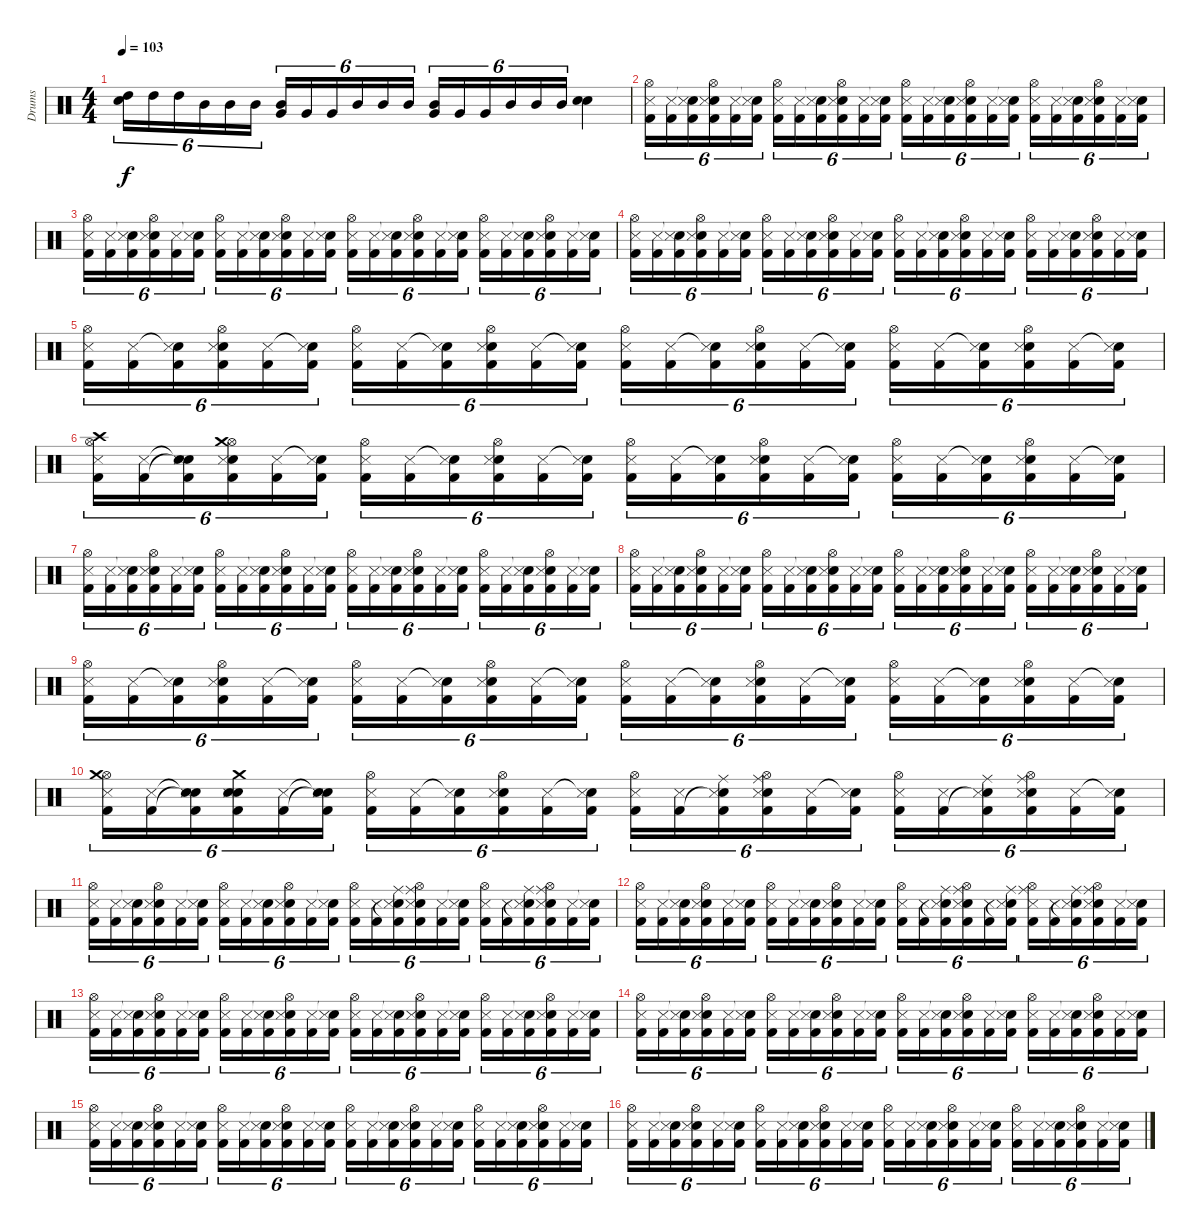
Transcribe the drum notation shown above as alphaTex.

\track ("Drums" "Drums") {instrument percussion}
\staff {score}
\articulation defaults
\ts (4 4)
\tempo 103
\clef neutral
\ks c
("Electric Snare (hit)" "High Tom (hit)").16{tu (6 4) dy f} "High Tom (hit)".16{tu (6 4)} "High Tom (hit)".16{tu (6 4)} "Mid Tom (hit)".16{tu (6 4)} "Mid Tom (hit)".16{tu (6 4)} "Mid Tom (hit)".16{tu (6 4)} ("Very Low Tom (hit)" "Mid Tom (hit)").16{tu (6 4)} "Very Low Tom (hit)".16{tu (6 4)} "Very Low Tom (hit)".16{tu (6 4)} "Mid Tom (hit)".16{tu (6 4)} "Mid Tom (hit)".16{tu (6 4)} "Mid Tom (hit)".16{tu (6 4)} ("Very Low Tom (hit)" "Mid Tom (hit)").16{tu (6 4)} "Very Low Tom (hit)".16{tu (6 4)} "Very Low Tom (hit)".16{tu (6 4)} "Mid Tom (hit)".16{tu (6 4)} "Mid Tom (hit)".16{tu (6 4)} "Mid Tom (hit)".16{tu (6 4)} ("Snare (hit) 2" "Electric Snare (hit)").4 |
("Hi-Hat (open)" "Snare (side stick) 3" "Kick (hit) 2").16{tu (6 4)} ("Snare (side stick) 3" "Kick (hit) 2").16{tu (6 4)} ("Snare (hit)"{t} "Snare (side stick) 3" "Kick (hit) 2").16{tu (6 4)} ("Hi-Hat (open)" "Electric Snare (hit)" "Snare (side stick) 3" "Kick (hit) 2").16{tu (6 4)} ("Snare (side stick) 3" "Kick (hit) 2").16{tu (6 4)} ("Snare (hit)"{t} "Snare (side stick) 3" "Kick (hit) 2").16{tu (6 4)} ("Hi-Hat (open)" "Snare (side stick) 3" "Kick (hit) 2").16{tu (6 4)} ("Snare (side stick) 3" "Kick (hit) 2").16{tu (6 4)} ("Snare (hit)"{t} "Snare (side stick) 3" "Kick (hit) 2").16{tu (6 4)} ("Hi-Hat (open)" "Electric Snare (hit)" "Snare (side stick) 3" "Kick (hit) 2").16{tu (6 4)} ("Snare (side stick) 3" "Kick (hit) 2").16{tu (6 4)} ("Snare (hit)"{t} "Snare (side stick) 3" "Kick (hit) 2").16{tu (6 4)} ("Hi-Hat (open)" "Snare (side stick) 3" "Kick (hit) 2").16{tu (6 4)} ("Snare (side stick) 3" "Kick (hit) 2").16{tu (6 4)} ("Snare (hit)"{t} "Snare (side stick) 3" "Kick (hit) 2").16{tu (6 4)} ("Hi-Hat (open)" "Electric Snare (hit)" "Snare (side stick) 3" "Kick (hit) 2").16{tu (6 4)} ("Snare (side stick) 3" "Kick (hit) 2").16{tu (6 4)} ("Snare (hit)"{t} "Snare (side stick) 3" "Kick (hit) 2").16{tu (6 4)} ("Hi-Hat (open)" "Snare (side stick) 3" "Kick (hit) 2").16{tu (6 4)} ("Snare (side stick) 3" "Kick (hit) 2").16{tu (6 4)} ("Snare (hit)"{t} "Snare (side stick) 3" "Kick (hit) 2").16{tu (6 4)} ("Hi-Hat (open)" "Electric Snare (hit)" "Snare (side stick) 3" "Kick (hit) 2").16{tu (6 4)} ("Snare (side stick) 3" "Kick (hit) 2").16{tu (6 4)} ("Snare (hit)"{t} "Snare (side stick) 3" "Kick (hit) 2").16{tu (6 4)} |
("Hi-Hat (open)" "Snare (side stick) 3" "Kick (hit) 2").16{tu (6 4)} ("Snare (side stick) 3" "Kick (hit) 2").16{tu (6 4)} ("Snare (hit)"{t} "Snare (side stick) 3" "Kick (hit) 2").16{tu (6 4)} ("Hi-Hat (open)" "Electric Snare (hit)" "Snare (side stick) 3" "Kick (hit) 2").16{tu (6 4)} ("Snare (side stick) 3" "Kick (hit) 2").16{tu (6 4)} ("Snare (hit)"{t} "Snare (side stick) 3" "Kick (hit) 2").16{tu (6 4)} ("Hi-Hat (open)" "Snare (side stick) 3" "Kick (hit) 2").16{tu (6 4)} ("Snare (side stick) 3" "Kick (hit) 2").16{tu (6 4)} ("Snare (hit)"{t} "Snare (side stick) 3" "Kick (hit) 2").16{tu (6 4)} ("Hi-Hat (open)" "Electric Snare (hit)" "Snare (side stick) 3" "Kick (hit) 2").16{tu (6 4)} ("Snare (side stick) 3" "Kick (hit) 2").16{tu (6 4)} ("Snare (hit)"{t} "Snare (side stick) 3" "Kick (hit) 2").16{tu (6 4)} ("Hi-Hat (open)" "Snare (side stick) 3" "Kick (hit) 2").16{tu (6 4)} ("Snare (side stick) 3" "Kick (hit) 2").16{tu (6 4)} ("Snare (hit)"{t} "Snare (side stick) 3" "Kick (hit) 2").16{tu (6 4)} ("Hi-Hat (open)" "Electric Snare (hit)" "Snare (side stick) 3" "Kick (hit) 2").16{tu (6 4)} ("Snare (side stick) 3" "Kick (hit) 2").16{tu (6 4)} ("Snare (hit)"{t} "Snare (side stick) 3" "Kick (hit) 2").16{tu (6 4)} ("Hi-Hat (open)" "Snare (side stick) 3" "Kick (hit) 2").16{tu (6 4)} ("Snare (side stick) 3" "Kick (hit) 2").16{tu (6 4)} ("Snare (hit)"{t} "Snare (side stick) 3" "Kick (hit) 2").16{tu (6 4)} ("Hi-Hat (open)" "Electric Snare (hit)" "Snare (side stick) 3" "Kick (hit) 2").16{tu (6 4)} ("Snare (side stick) 3" "Kick (hit) 2").16{tu (6 4)} ("Snare (hit)"{t} "Snare (side stick) 3" "Kick (hit) 2").16{tu (6 4)} |
("Hi-Hat (open)" "Snare (side stick) 3" "Kick (hit) 2").16{tu (6 4)} ("Snare (side stick) 3" "Kick (hit) 2").16{tu (6 4)} ("Snare (hit)"{t} "Snare (side stick) 3" "Kick (hit) 2").16{tu (6 4)} ("Hi-Hat (open)" "Electric Snare (hit)" "Snare (side stick) 3" "Kick (hit) 2").16{tu (6 4)} ("Snare (side stick) 3" "Kick (hit) 2").16{tu (6 4)} ("Snare (hit)"{t} "Snare (side stick) 3" "Kick (hit) 2").16{tu (6 4)} ("Hi-Hat (open)" "Snare (side stick) 3" "Kick (hit) 2").16{tu (6 4)} ("Snare (side stick) 3" "Kick (hit) 2").16{tu (6 4)} ("Snare (hit)"{t} "Snare (side stick) 3" "Kick (hit) 2").16{tu (6 4)} ("Hi-Hat (open)" "Electric Snare (hit)" "Snare (side stick) 3" "Kick (hit) 2").16{tu (6 4)} ("Snare (side stick) 3" "Kick (hit) 2").16{tu (6 4)} ("Snare (hit)"{t} "Snare (side stick) 3" "Kick (hit) 2").16{tu (6 4)} ("Hi-Hat (open)" "Snare (side stick) 3" "Kick (hit) 2").16{tu (6 4)} ("Snare (side stick) 3" "Kick (hit) 2").16{tu (6 4)} ("Snare (hit)"{t} "Snare (side stick) 3" "Kick (hit) 2").16{tu (6 4)} ("Hi-Hat (open)" "Electric Snare (hit)" "Snare (side stick) 3" "Kick (hit) 2").16{tu (6 4)} ("Snare (side stick) 3" "Kick (hit) 2").16{tu (6 4)} ("Snare (hit)"{t} "Snare (side stick) 3" "Kick (hit) 2").16{tu (6 4)} ("Hi-Hat (open)" "Snare (side stick) 3" "Kick (hit) 2").16{tu (6 4)} ("Snare (side stick) 3" "Kick (hit) 2").16{tu (6 4)} ("Snare (hit)"{t} "Snare (side stick) 3" "Kick (hit) 2").16{tu (6 4)} ("Hi-Hat (open)" "Electric Snare (hit)" "Snare (side stick) 3" "Kick (hit) 2").16{tu (6 4)} ("Snare (side stick) 3" "Kick (hit) 2").16{tu (6 4)} ("Snare (hit)"{t} "Snare (side stick) 3" "Kick (hit) 2").16{tu (6 4)} |
("Hi-Hat (open)" "Snare (side stick) 3" "Kick (hit) 2").16{tu (6 4)} ("Snare (side stick) 3" "Kick (hit) 2").16{tu (6 4)} ("Snare (hit)"{t} "Snare (side stick) 3" "Kick (hit) 2").16{tu (6 4)} ("Hi-Hat (open)" "Electric Snare (hit)" "Snare (side stick) 3" "Kick (hit) 2").16{tu (6 4)} ("Snare (side stick) 3" "Kick (hit) 2").16{tu (6 4)} ("Snare (hit)"{t} "Snare (side stick) 3" "Kick (hit) 2").16{tu (6 4)} ("Hi-Hat (open)" "Snare (side stick) 3" "Kick (hit) 2").16{tu (6 4)} ("Snare (side stick) 3" "Kick (hit) 2").16{tu (6 4)} ("Snare (hit)"{t} "Snare (side stick) 3" "Kick (hit) 2").16{tu (6 4)} ("Hi-Hat (open)" "Electric Snare (hit)" "Snare (side stick) 3" "Kick (hit) 2").16{tu (6 4)} ("Snare (side stick) 3" "Kick (hit) 2").16{tu (6 4)} ("Snare (hit)"{t} "Snare (side stick) 3" "Kick (hit) 2").16{tu (6 4)} ("Hi-Hat (open)" "Snare (side stick) 3" "Kick (hit) 2").16{tu (6 4)} ("Snare (side stick) 3" "Kick (hit) 2").16{tu (6 4)} ("Snare (hit)"{t} "Snare (side stick) 3" "Kick (hit) 2").16{tu (6 4)} ("Hi-Hat (open)" "Electric Snare (hit)" "Snare (side stick) 3" "Kick (hit) 2").16{tu (6 4)} ("Snare (side stick) 3" "Kick (hit) 2").16{tu (6 4)} ("Snare (hit)"{t} "Snare (side stick) 3" "Kick (hit) 2").16{tu (6 4)} ("Hi-Hat (open)" "Snare (side stick) 3" "Kick (hit) 2").16{tu (6 4)} ("Snare (side stick) 3" "Kick (hit) 2").16{tu (6 4)} ("Snare (hit)"{t} "Snare (side stick) 3" "Kick (hit) 2").16{tu (6 4)} ("Hi-Hat (open)" "Electric Snare (hit)" "Snare (side stick) 3" "Kick (hit) 2").16{tu (6 4)} ("Snare (side stick) 3" "Kick (hit) 2").16{tu (6 4)} ("Snare (hit)"{t} "Snare (side stick) 3" "Kick (hit) 2").16{tu (6 4)} |
("Hi-Hat (open)" "Crash high (hit)" "Snare (side stick) 3" "Kick (hit) 2").16{tu (6 4)} ("Snare (side stick) 3" "Kick (hit) 2").16{tu (6 4)} ("Snare (hit)"{t} "Snare (hit)"{t} "Snare (side stick) 3" "Kick (hit) 2").16{tu (6 4)} ("Hi-Hat (open)" "Electric Snare (hit)" "Crash medium (hit)" "Snare (side stick) 3" "Kick (hit) 2").16{tu (6 4)} ("Snare (side stick) 3" "Kick (hit) 2").16{tu (6 4)} ("Snare (hit)"{t} "Snare (side stick) 3" "Kick (hit) 2").16{tu (6 4)} ("Hi-Hat (open)" "Snare (side stick) 3" "Kick (hit) 2").16{tu (6 4)} ("Snare (side stick) 3" "Kick (hit) 2").16{tu (6 4)} ("Snare (hit)"{t} "Snare (side stick) 3" "Kick (hit) 2").16{tu (6 4)} ("Hi-Hat (open)" "Electric Snare (hit)" "Snare (side stick) 3" "Kick (hit) 2").16{tu (6 4)} ("Snare (side stick) 3" "Kick (hit) 2").16{tu (6 4)} ("Snare (hit)"{t} "Snare (side stick) 3" "Kick (hit) 2").16{tu (6 4)} ("Hi-Hat (open)" "Snare (side stick) 3" "Kick (hit) 2").16{tu (6 4)} ("Snare (side stick) 3" "Kick (hit) 2").16{tu (6 4)} ("Snare (hit)"{t} "Snare (side stick) 3" "Kick (hit) 2").16{tu (6 4)} ("Hi-Hat (open)" "Electric Snare (hit)" "Snare (side stick) 3" "Kick (hit) 2").16{tu (6 4)} ("Snare (side stick) 3" "Kick (hit) 2").16{tu (6 4)} ("Snare (hit)"{t} "Snare (side stick) 3" "Kick (hit) 2").16{tu (6 4)} ("Hi-Hat (open)" "Snare (side stick) 3" "Kick (hit) 2").16{tu (6 4)} ("Snare (side stick) 3" "Kick (hit) 2").16{tu (6 4)} ("Snare (hit)"{t} "Snare (side stick) 3" "Kick (hit) 2").16{tu (6 4)} ("Hi-Hat (open)" "Electric Snare (hit)" "Snare (side stick) 3" "Kick (hit) 2").16{tu (6 4)} ("Snare (side stick) 3" "Kick (hit) 2").16{tu (6 4)} ("Snare (hit)"{t} "Snare (side stick) 3" "Kick (hit) 2").16{tu (6 4)} |
("Hi-Hat (open)" "Snare (side stick) 3" "Kick (hit) 2").16{tu (6 4)} ("Snare (side stick) 3" "Kick (hit) 2").16{tu (6 4)} ("Snare (hit)"{t} "Snare (side stick) 3" "Kick (hit) 2").16{tu (6 4)} ("Hi-Hat (open)" "Electric Snare (hit)" "Snare (side stick) 3" "Kick (hit) 2").16{tu (6 4)} ("Snare (side stick) 3" "Kick (hit) 2").16{tu (6 4)} ("Snare (hit)"{t} "Snare (side stick) 3" "Kick (hit) 2").16{tu (6 4)} ("Hi-Hat (open)" "Snare (side stick) 3" "Kick (hit) 2").16{tu (6 4)} ("Snare (side stick) 3" "Kick (hit) 2").16{tu (6 4)} ("Snare (hit)"{t} "Snare (side stick) 3" "Kick (hit) 2").16{tu (6 4)} ("Hi-Hat (open)" "Electric Snare (hit)" "Snare (side stick) 3" "Kick (hit) 2").16{tu (6 4)} ("Snare (side stick) 3" "Kick (hit) 2").16{tu (6 4)} ("Snare (hit)"{t} "Snare (side stick) 3" "Kick (hit) 2").16{tu (6 4)} ("Hi-Hat (open)" "Snare (side stick) 3" "Kick (hit) 2").16{tu (6 4)} ("Snare (side stick) 3" "Kick (hit) 2").16{tu (6 4)} ("Snare (hit)"{t} "Snare (side stick) 3" "Kick (hit) 2").16{tu (6 4)} ("Hi-Hat (open)" "Electric Snare (hit)" "Snare (side stick) 3" "Kick (hit) 2").16{tu (6 4)} ("Snare (side stick) 3" "Kick (hit) 2").16{tu (6 4)} ("Snare (hit)"{t} "Snare (side stick) 3" "Kick (hit) 2").16{tu (6 4)} ("Hi-Hat (open)" "Snare (side stick) 3" "Kick (hit) 2").16{tu (6 4)} ("Snare (side stick) 3" "Kick (hit) 2").16{tu (6 4)} ("Snare (hit)"{t} "Snare (side stick) 3" "Kick (hit) 2").16{tu (6 4)} ("Hi-Hat (open)" "Electric Snare (hit)" "Snare (side stick) 3" "Kick (hit) 2").16{tu (6 4)} ("Snare (side stick) 3" "Kick (hit) 2").16{tu (6 4)} ("Snare (hit)"{t} "Snare (side stick) 3" "Kick (hit) 2").16{tu (6 4)} |
("Hi-Hat (open)" "Snare (side stick) 3" "Kick (hit) 2").16{tu (6 4)} ("Snare (side stick) 3" "Kick (hit) 2").16{tu (6 4)} ("Snare (hit)"{t} "Snare (side stick) 3" "Kick (hit) 2").16{tu (6 4)} ("Hi-Hat (open)" "Electric Snare (hit)" "Snare (side stick) 3" "Kick (hit) 2").16{tu (6 4)} ("Snare (side stick) 3" "Kick (hit) 2").16{tu (6 4)} ("Snare (hit)"{t} "Snare (side stick) 3" "Kick (hit) 2").16{tu (6 4)} ("Hi-Hat (open)" "Snare (side stick) 3" "Kick (hit) 2").16{tu (6 4)} ("Snare (side stick) 3" "Kick (hit) 2").16{tu (6 4)} ("Snare (hit)"{t} "Snare (side stick) 3" "Kick (hit) 2").16{tu (6 4)} ("Hi-Hat (open)" "Electric Snare (hit)" "Snare (side stick) 3" "Kick (hit) 2").16{tu (6 4)} ("Snare (side stick) 3" "Kick (hit) 2").16{tu (6 4)} ("Snare (hit)"{t} "Snare (side stick) 3" "Kick (hit) 2").16{tu (6 4)} ("Hi-Hat (open)" "Snare (side stick) 3" "Kick (hit) 2").16{tu (6 4)} ("Snare (side stick) 3" "Kick (hit) 2").16{tu (6 4)} ("Snare (hit)"{t} "Snare (side stick) 3" "Kick (hit) 2").16{tu (6 4)} ("Hi-Hat (open)" "Electric Snare (hit)" "Snare (side stick) 3" "Kick (hit) 2").16{tu (6 4)} ("Snare (side stick) 3" "Kick (hit) 2").16{tu (6 4)} ("Snare (hit)"{t} "Snare (side stick) 3" "Kick (hit) 2").16{tu (6 4)} ("Hi-Hat (open)" "Snare (side stick) 3" "Kick (hit) 2").16{tu (6 4)} ("Snare (side stick) 3" "Kick (hit) 2").16{tu (6 4)} ("Snare (hit)"{t} "Snare (side stick) 3" "Kick (hit) 2").16{tu (6 4)} ("Hi-Hat (open)" "Electric Snare (hit)" "Snare (side stick) 3" "Kick (hit) 2").16{tu (6 4)} ("Snare (side stick) 3" "Kick (hit) 2").16{tu (6 4)} ("Snare (hit)"{t} "Snare (side stick) 3" "Kick (hit) 2").16{tu (6 4)} |
("Hi-Hat (open)" "Snare (side stick) 3" "Kick (hit) 2").16{tu (6 4)} ("Snare (side stick) 3" "Kick (hit) 2").16{tu (6 4)} ("Snare (hit)"{t} "Snare (side stick) 3" "Kick (hit) 2").16{tu (6 4)} ("Hi-Hat (open)" "Electric Snare (hit)" "Snare (side stick) 3" "Kick (hit) 2").16{tu (6 4)} ("Snare (side stick) 3" "Kick (hit) 2").16{tu (6 4)} ("Snare (hit)"{t} "Snare (side stick) 3" "Kick (hit) 2").16{tu (6 4)} ("Hi-Hat (open)" "Snare (side stick) 3" "Kick (hit) 2").16{tu (6 4)} ("Snare (side stick) 3" "Kick (hit) 2").16{tu (6 4)} ("Snare (hit)"{t} "Snare (side stick) 3" "Kick (hit) 2").16{tu (6 4)} ("Hi-Hat (open)" "Electric Snare (hit)" "Snare (side stick) 3" "Kick (hit) 2").16{tu (6 4)} ("Snare (side stick) 3" "Kick (hit) 2").16{tu (6 4)} ("Snare (hit)"{t} "Snare (side stick) 3" "Kick (hit) 2").16{tu (6 4)} ("Hi-Hat (open)" "Snare (side stick) 3" "Kick (hit) 2").16{tu (6 4)} ("Snare (side stick) 3" "Kick (hit) 2").16{tu (6 4)} ("Snare (hit)"{t} "Snare (side stick) 3" "Kick (hit) 2").16{tu (6 4)} ("Hi-Hat (open)" "Electric Snare (hit)" "Snare (side stick) 3" "Kick (hit) 2").16{tu (6 4)} ("Snare (side stick) 3" "Kick (hit) 2").16{tu (6 4)} ("Snare (hit)"{t} "Snare (side stick) 3" "Kick (hit) 2").16{tu (6 4)} ("Hi-Hat (open)" "Snare (side stick) 3" "Kick (hit) 2").16{tu (6 4)} ("Snare (side stick) 3" "Kick (hit) 2").16{tu (6 4)} ("Snare (hit)"{t} "Snare (side stick) 3" "Kick (hit) 2").16{tu (6 4)} ("Hi-Hat (open)" "Electric Snare (hit)" "Snare (side stick) 3" "Kick (hit) 2").16{tu (6 4)} ("Snare (side stick) 3" "Kick (hit) 2").16{tu (6 4)} ("Snare (hit)"{t} "Snare (side stick) 3" "Kick (hit) 2").16{tu (6 4)} |
("Hi-Hat (open)" "Crash medium (hit)" "Snare (side stick) 3" "Kick (hit) 2").16{tu (6 4)} ("Snare (side stick) 3" "Kick (hit) 2").16{tu (6 4)} ("Snare (hit)"{t} "Snare (hit)"{t} "Snare (side stick) 3" "Kick (hit) 2").16{tu (6 4)} ("Crash medium (hit)" "Snare (hit)" "Electric Snare (hit)" "Snare (side stick) 3" "Kick (hit) 2").16{tu (6 4)} ("Snare (side stick) 3" "Kick (hit) 2").16{tu (6 4)} ("Snare (hit)"{t} "Snare (hit)"{t} "Snare (side stick) 3" "Kick (hit) 2").16{tu (6 4)} ("Hi-Hat (open)" "Snare (side stick) 3" "Kick (hit) 2").16{tu (6 4)} ("Snare (side stick) 3" "Kick (hit) 2").16{tu (6 4)} ("Snare (hit)"{t} "Snare (side stick) 3" "Kick (hit) 2").16{tu (6 4)} ("Hi-Hat (open)" "Electric Snare (hit)" "Snare (side stick) 3" "Kick (hit) 2").16{tu (6 4)} ("Snare (side stick) 3" "Kick (hit) 2").16{tu (6 4)} ("Snare (hit)"{t} "Snare (side stick) 3" "Kick (hit) 2").16{tu (6 4)} ("Hi-Hat (open)" "Snare (side stick) 3" "Kick (hit) 2").16{tu (6 4)} ("Snare (side stick) 3" "Kick (hit) 2").16{tu (6 4)} ("Ride (middle)" "Snare (hit)"{t} "Snare (side stick) 3" "Kick (hit) 2").16{tu (6 4)} ("Ride (middle)" "Hi-Hat (open)" "Electric Snare (hit)" "Snare (side stick) 3" "Kick (hit) 2").16{tu (6 4)} ("Snare (side stick) 3" "Kick (hit) 2").16{tu (6 4)} ("Snare (hit)"{t} "Snare (side stick) 3" "Kick (hit) 2").16{tu (6 4)} ("Hi-Hat (open)" "Snare (side stick) 3" "Kick (hit) 2").16{tu (6 4)} ("Snare (side stick) 3" "Kick (hit) 2").16{tu (6 4)} ("Ride (middle)" "Snare (hit)"{t} "Snare (side stick) 3" "Kick (hit) 2").16{tu (6 4)} ("Ride (middle)" "Hi-Hat (open)" "Electric Snare (hit)" "Snare (side stick) 3" "Kick (hit) 2").16{tu (6 4)} ("Snare (side stick) 3" "Kick (hit) 2").16{tu (6 4)} ("Snare (hit)"{t} "Snare (side stick) 3" "Kick (hit) 2").16{tu (6 4)} |
("Hi-Hat (open)" "Snare (side stick) 3" "Kick (hit) 2").16{tu (6 4)} ("Snare (side stick) 3" "Kick (hit) 2").16{tu (6 4)} ("Snare (hit)"{t} "Snare (side stick) 3" "Kick (hit) 2").16{tu (6 4)} ("Hi-Hat (open)" "Electric Snare (hit)" "Snare (side stick) 3" "Kick (hit) 2").16{tu (6 4)} ("Snare (side stick) 3" "Kick (hit) 2").16{tu (6 4)} ("Snare (hit)"{t} "Snare (side stick) 3" "Kick (hit) 2").16{tu (6 4)} ("Hi-Hat (open)" "Snare (side stick) 3" "Kick (hit) 2").16{tu (6 4)} ("Snare (side stick) 3" "Kick (hit) 2").16{tu (6 4)} ("Snare (hit)"{t} "Snare (side stick) 3" "Kick (hit) 2").16{tu (6 4)} ("Hi-Hat (open)" "Electric Snare (hit)" "Snare (side stick) 3" "Kick (hit) 2").16{tu (6 4)} ("Snare (side stick) 3" "Kick (hit) 2").16{tu (6 4)} ("Snare (hit)"{t} "Snare (side stick) 3" "Kick (hit) 2").16{tu (6 4)} ("Hi-Hat (open)" "Snare (side stick) 3" "Kick (hit) 2").16{tu (6 4)} ("Snare (side stick) 3" "Kick (hit) 2").16{tu (6 4)} ("Ride (middle)" "Snare (hit)"{t} "Snare (side stick) 3" "Kick (hit) 2").16{tu (6 4)} ("Ride (middle)" "Hi-Hat (open)" "Electric Snare (hit)" "Snare (side stick) 3" "Kick (hit) 2").16{tu (6 4)} ("Snare (side stick) 3" "Kick (hit) 2").16{tu (6 4)} ("Snare (hit)"{t} "Snare (side stick) 3" "Kick (hit) 2").16{tu (6 4)} ("Hi-Hat (open)" "Snare (side stick) 3" "Kick (hit) 2").16{tu (6 4)} ("Snare (side stick) 3" "Kick (hit) 2").16{tu (6 4)} ("Ride (middle)" "Snare (hit)"{t} "Snare (side stick) 3" "Kick (hit) 2").16{tu (6 4)} ("Ride (middle)" "Hi-Hat (open)" "Electric Snare (hit)" "Snare (side stick) 3" "Kick (hit) 2").16{tu (6 4)} ("Snare (side stick) 3" "Kick (hit) 2").16{tu (6 4)} ("Snare (hit)"{t} "Snare (side stick) 3" "Kick (hit) 2").16{tu (6 4)} |
("Hi-Hat (open)" "Snare (side stick) 3" "Kick (hit) 2").16{tu (6 4)} ("Snare (side stick) 3" "Kick (hit) 2").16{tu (6 4)} ("Snare (hit)"{t} "Snare (side stick) 3" "Kick (hit) 2").16{tu (6 4)} ("Hi-Hat (open)" "Electric Snare (hit)" "Snare (side stick) 3" "Kick (hit) 2").16{tu (6 4)} ("Snare (side stick) 3" "Kick (hit) 2").16{tu (6 4)} ("Snare (hit)"{t} "Snare (side stick) 3" "Kick (hit) 2").16{tu (6 4)} ("Hi-Hat (open)" "Snare (side stick) 3" "Kick (hit) 2").16{tu (6 4)} ("Snare (side stick) 3" "Kick (hit) 2").16{tu (6 4)} ("Snare (hit)"{t} "Snare (side stick) 3" "Kick (hit) 2").16{tu (6 4)} ("Hi-Hat (open)" "Electric Snare (hit)" "Snare (side stick) 3" "Kick (hit) 2").16{tu (6 4)} ("Snare (side stick) 3" "Kick (hit) 2").16{tu (6 4)} ("Snare (hit)"{t} "Snare (side stick) 3" "Kick (hit) 2").16{tu (6 4)} ("Hi-Hat (open)" "Snare (side stick) 3" "Kick (hit) 2").16{tu (6 4)} ("Snare (side stick) 3" "Kick (hit) 2").16{tu (6 4)} ("Ride (middle)" "Snare (hit)"{t} "Snare (side stick) 3" "Kick (hit) 2").16{tu (6 4)} ("Ride (middle)" "Hi-Hat (open)" "Electric Snare (hit)" "Snare (side stick) 3" "Kick (hit) 2").16{tu (6 4)} ("Snare (side stick) 3" "Kick (hit) 2").16{tu (6 4)} ("Ride (middle)" "Snare (hit)"{t} "Snare (side stick) 3" "Kick (hit) 2").16{tu (6 4)} ("Ride (middle)" "Hi-Hat (open)" "Snare (side stick) 3" "Kick (hit) 2").16{tu (6 4)} ("Snare (side stick) 3" "Kick (hit) 2").16{tu (6 4)} ("Ride (middle)" "Snare (hit)"{t} "Snare (side stick) 3" "Kick (hit) 2").16{tu (6 4)} ("Ride (middle)" "Hi-Hat (open)" "Electric Snare (hit)" "Snare (side stick) 3" "Kick (hit) 2").16{tu (6 4)} ("Snare (side stick) 3" "Kick (hit) 2").16{tu (6 4)} ("Snare (hit)"{t} "Snare (side stick) 3" "Kick (hit) 2").16{tu (6 4)} |
("Hi-Hat (open)" "Snare (side stick) 3" "Kick (hit) 2").16{tu (6 4)} ("Snare (side stick) 3" "Kick (hit) 2").16{tu (6 4)} ("Snare (hit)"{t} "Snare (side stick) 3" "Kick (hit) 2").16{tu (6 4)} ("Hi-Hat (open)" "Electric Snare (hit)" "Snare (side stick) 3" "Kick (hit) 2").16{tu (6 4)} ("Snare (side stick) 3" "Kick (hit) 2").16{tu (6 4)} ("Snare (hit)"{t} "Snare (side stick) 3" "Kick (hit) 2").16{tu (6 4)} ("Hi-Hat (open)" "Snare (side stick) 3" "Kick (hit) 2").16{tu (6 4)} ("Snare (side stick) 3" "Kick (hit) 2").16{tu (6 4)} ("Snare (hit)"{t} "Snare (side stick) 3" "Kick (hit) 2").16{tu (6 4)} ("Hi-Hat (open)" "Electric Snare (hit)" "Snare (side stick) 3" "Kick (hit) 2").16{tu (6 4)} ("Snare (side stick) 3" "Kick (hit) 2").16{tu (6 4)} ("Snare (hit)"{t} "Snare (side stick) 3" "Kick (hit) 2").16{tu (6 4)} ("Hi-Hat (open)" "Snare (side stick) 3" "Kick (hit) 2").16{tu (6 4)} ("Snare (side stick) 3" "Kick (hit) 2").16{tu (6 4)} ("Snare (hit)"{t} "Snare (side stick) 3" "Kick (hit) 2").16{tu (6 4)} ("Hi-Hat (open)" "Electric Snare (hit)" "Snare (side stick) 3" "Kick (hit) 2").16{tu (6 4)} ("Snare (side stick) 3" "Kick (hit) 2").16{tu (6 4)} ("Snare (hit)"{t} "Snare (side stick) 3" "Kick (hit) 2").16{tu (6 4)} ("Hi-Hat (open)" "Snare (side stick) 3" "Kick (hit) 2").16{tu (6 4)} ("Snare (side stick) 3" "Kick (hit) 2").16{tu (6 4)} ("Snare (hit)"{t} "Snare (side stick) 3" "Kick (hit) 2").16{tu (6 4)} ("Hi-Hat (open)" "Electric Snare (hit)" "Snare (side stick) 3" "Kick (hit) 2").16{tu (6 4)} ("Snare (side stick) 3" "Kick (hit) 2").16{tu (6 4)} ("Snare (hit)"{t} "Snare (side stick) 3" "Kick (hit) 2").16{tu (6 4)} |
("Hi-Hat (open)" "Snare (side stick) 3" "Kick (hit) 2").16{tu (6 4)} ("Snare (side stick) 3" "Kick (hit) 2").16{tu (6 4)} ("Snare (hit)"{t} "Snare (side stick) 3" "Kick (hit) 2").16{tu (6 4)} ("Hi-Hat (open)" "Electric Snare (hit)" "Snare (side stick) 3" "Kick (hit) 2").16{tu (6 4)} ("Snare (side stick) 3" "Kick (hit) 2").16{tu (6 4)} ("Snare (hit)"{t} "Snare (side stick) 3" "Kick (hit) 2").16{tu (6 4)} ("Hi-Hat (open)" "Snare (side stick) 3" "Kick (hit) 2").16{tu (6 4)} ("Snare (side stick) 3" "Kick (hit) 2").16{tu (6 4)} ("Snare (hit)"{t} "Snare (side stick) 3" "Kick (hit) 2").16{tu (6 4)} ("Hi-Hat (open)" "Electric Snare (hit)" "Snare (side stick) 3" "Kick (hit) 2").16{tu (6 4)} ("Snare (side stick) 3" "Kick (hit) 2").16{tu (6 4)} ("Snare (hit)"{t} "Snare (side stick) 3" "Kick (hit) 2").16{tu (6 4)} ("Hi-Hat (open)" "Snare (side stick) 3" "Kick (hit) 2").16{tu (6 4)} ("Snare (side stick) 3" "Kick (hit) 2").16{tu (6 4)} ("Snare (hit)"{t} "Snare (side stick) 3" "Kick (hit) 2").16{tu (6 4)} ("Hi-Hat (open)" "Electric Snare (hit)" "Snare (side stick) 3" "Kick (hit) 2").16{tu (6 4)} ("Snare (side stick) 3" "Kick (hit) 2").16{tu (6 4)} ("Snare (hit)"{t} "Snare (side stick) 3" "Kick (hit) 2").16{tu (6 4)} ("Hi-Hat (open)" "Snare (side stick) 3" "Kick (hit) 2").16{tu (6 4)} ("Snare (side stick) 3" "Kick (hit) 2").16{tu (6 4)} ("Snare (hit)"{t} "Snare (side stick) 3" "Kick (hit) 2").16{tu (6 4)} ("Hi-Hat (open)" "Electric Snare (hit)" "Snare (side stick) 3" "Kick (hit) 2").16{tu (6 4)} ("Snare (side stick) 3" "Kick (hit) 2").16{tu (6 4)} ("Snare (hit)"{t} "Snare (side stick) 3" "Kick (hit) 2").16{tu (6 4)} |
("Hi-Hat (open)" "Snare (side stick) 3" "Kick (hit) 2").16{tu (6 4)} ("Snare (side stick) 3" "Kick (hit) 2").16{tu (6 4)} ("Snare (hit)"{t} "Snare (side stick) 3" "Kick (hit) 2").16{tu (6 4)} ("Hi-Hat (open)" "Electric Snare (hit)" "Snare (side stick) 3" "Kick (hit) 2").16{tu (6 4)} ("Snare (side stick) 3" "Kick (hit) 2").16{tu (6 4)} ("Snare (hit)"{t} "Snare (side stick) 3" "Kick (hit) 2").16{tu (6 4)} ("Hi-Hat (open)" "Snare (side stick) 3" "Kick (hit) 2").16{tu (6 4)} ("Snare (side stick) 3" "Kick (hit) 2").16{tu (6 4)} ("Snare (hit)"{t} "Snare (side stick) 3" "Kick (hit) 2").16{tu (6 4)} ("Hi-Hat (open)" "Electric Snare (hit)" "Snare (side stick) 3" "Kick (hit) 2").16{tu (6 4)} ("Snare (side stick) 3" "Kick (hit) 2").16{tu (6 4)} ("Snare (hit)"{t} "Snare (side stick) 3" "Kick (hit) 2").16{tu (6 4)} ("Hi-Hat (open)" "Snare (side stick) 3" "Kick (hit) 2").16{tu (6 4)} ("Snare (side stick) 3" "Kick (hit) 2").16{tu (6 4)} ("Snare (hit)"{t} "Snare (side stick) 3" "Kick (hit) 2").16{tu (6 4)} ("Hi-Hat (open)" "Electric Snare (hit)" "Snare (side stick) 3" "Kick (hit) 2").16{tu (6 4)} ("Snare (side stick) 3" "Kick (hit) 2").16{tu (6 4)} ("Snare (hit)"{t} "Snare (side stick) 3" "Kick (hit) 2").16{tu (6 4)} ("Hi-Hat (open)" "Snare (side stick) 3" "Kick (hit) 2").16{tu (6 4)} ("Snare (side stick) 3" "Kick (hit) 2").16{tu (6 4)} ("Snare (hit)"{t} "Snare (side stick) 3" "Kick (hit) 2").16{tu (6 4)} ("Hi-Hat (open)" "Electric Snare (hit)" "Snare (side stick) 3" "Kick (hit) 2").16{tu (6 4)} ("Snare (side stick) 3" "Kick (hit) 2").16{tu (6 4)} ("Snare (hit)"{t} "Snare (side stick) 3" "Kick (hit) 2").16{tu (6 4)} |
("Hi-Hat (open)" "Snare (side stick) 3" "Kick (hit) 2").16{tu (6 4)} ("Snare (side stick) 3" "Kick (hit) 2").16{tu (6 4)} ("Snare (hit)"{t} "Snare (side stick) 3" "Kick (hit) 2").16{tu (6 4)} ("Hi-Hat (open)" "Electric Snare (hit)" "Snare (side stick) 3" "Kick (hit) 2").16{tu (6 4)} ("Snare (side stick) 3" "Kick (hit) 2").16{tu (6 4)} ("Snare (hit)"{t} "Snare (side stick) 3" "Kick (hit) 2").16{tu (6 4)} ("Hi-Hat (open)" "Snare (side stick) 3" "Kick (hit) 2").16{tu (6 4)} ("Snare (side stick) 3" "Kick (hit) 2").16{tu (6 4)} ("Snare (hit)"{t} "Snare (side stick) 3" "Kick (hit) 2").16{tu (6 4)} ("Hi-Hat (open)" "Electric Snare (hit)" "Snare (side stick) 3" "Kick (hit) 2").16{tu (6 4)} ("Snare (side stick) 3" "Kick (hit) 2").16{tu (6 4)} ("Snare (hit)"{t} "Snare (side stick) 3" "Kick (hit) 2").16{tu (6 4)} ("Hi-Hat (open)" "Snare (side stick) 3" "Kick (hit) 2").16{tu (6 4)} ("Snare (side stick) 3" "Kick (hit) 2").16{tu (6 4)} ("Snare (hit)"{t} "Snare (side stick) 3" "Kick (hit) 2").16{tu (6 4)} ("Hi-Hat (open)" "Electric Snare (hit)" "Snare (side stick) 3" "Kick (hit) 2").16{tu (6 4)} ("Snare (side stick) 3" "Kick (hit) 2").16{tu (6 4)} ("Snare (hit)"{t} "Snare (side stick) 3" "Kick (hit) 2").16{tu (6 4)} ("Hi-Hat (open)" "Snare (side stick) 3" "Kick (hit) 2").16{tu (6 4)} ("Snare (side stick) 3" "Kick (hit) 2").16{tu (6 4)} ("Snare (hit)"{t} "Snare (side stick) 3" "Kick (hit) 2").16{tu (6 4)} ("Hi-Hat (open)" "Electric Snare (hit)" "Snare (side stick) 3" "Kick (hit) 2").16{tu (6 4)} ("Snare (side stick) 3" "Kick (hit) 2").16{tu (6 4)} ("Snare (hit)"{t} "Snare (side stick) 3" "Kick (hit) 2").16{tu (6 4)}
